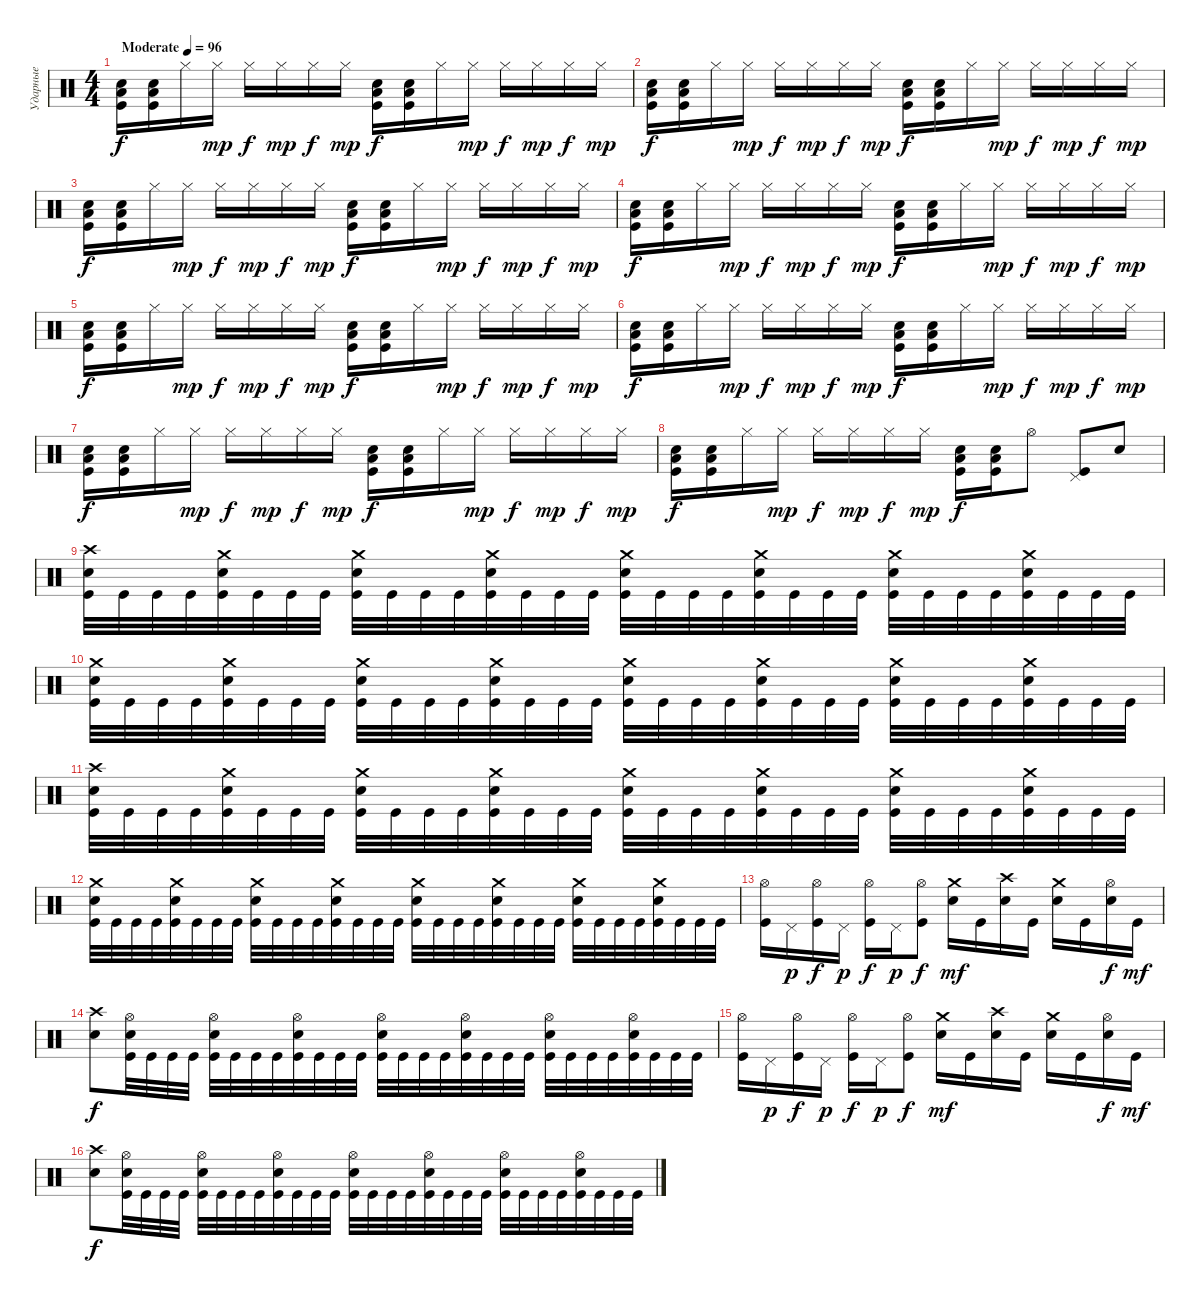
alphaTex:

\track ("Ударные" "Ударные") {instrument percussion}
\staff {score}
\articulation defaults
\ts (4 4)
\tempo (96 "Moderate")
\clef neutral
\ks c
("Snare (hit) 2" "Low Floor Tom (hit)" "Kick (hit)").16{dy f} ("Snare (hit) 2" "Low Floor Tom (hit)" "Kick (hit)").16 "Hi-Hat (closed)".16 "Hi-Hat (closed)".16{dy mp} "Hi-Hat (closed)".16{dy f} "Hi-Hat (closed)".16{dy mp} "Hi-Hat (closed)".16{dy f} "Hi-Hat (closed)".16{dy mp} ("Snare (hit) 2" "Low Floor Tom (hit)" "Kick (hit)").16{dy f} ("Snare (hit) 2" "Low Floor Tom (hit)" "Kick (hit)").16 "Hi-Hat (closed)".16 "Hi-Hat (closed)".16{dy mp} "Hi-Hat (closed)".16{dy f} "Hi-Hat (closed)".16{dy mp} "Hi-Hat (closed)".16{dy f} "Hi-Hat (closed)".16{dy mp} |
("Snare (hit) 2" "Low Floor Tom (hit)" "Kick (hit)").16{dy f} ("Snare (hit) 2" "Low Floor Tom (hit)" "Kick (hit)").16 "Hi-Hat (closed)".16 "Hi-Hat (closed)".16{dy mp} "Hi-Hat (closed)".16{dy f} "Hi-Hat (closed)".16{dy mp} "Hi-Hat (closed)".16{dy f} "Hi-Hat (closed)".16{dy mp} ("Snare (hit) 2" "Low Floor Tom (hit)" "Kick (hit)").16{dy f} ("Snare (hit) 2" "Low Floor Tom (hit)" "Kick (hit)").16 "Hi-Hat (closed)".16 "Hi-Hat (closed)".16{dy mp} "Hi-Hat (closed)".16{dy f} "Hi-Hat (closed)".16{dy mp} "Hi-Hat (closed)".16{dy f} "Hi-Hat (closed)".16{dy mp} |
("Snare (hit) 2" "Low Floor Tom (hit)" "Kick (hit)").16{dy f} ("Snare (hit) 2" "Low Floor Tom (hit)" "Kick (hit)").16 "Hi-Hat (closed)".16 "Hi-Hat (closed)".16{dy mp} "Hi-Hat (closed)".16{dy f} "Hi-Hat (closed)".16{dy mp} "Hi-Hat (closed)".16{dy f} "Hi-Hat (closed)".16{dy mp} ("Snare (hit) 2" "Low Floor Tom (hit)" "Kick (hit)").16{dy f} ("Snare (hit) 2" "Low Floor Tom (hit)" "Kick (hit)").16 "Hi-Hat (closed)".16 "Hi-Hat (closed)".16{dy mp} "Hi-Hat (closed)".16{dy f} "Hi-Hat (closed)".16{dy mp} "Hi-Hat (closed)".16{dy f} "Hi-Hat (closed)".16{dy mp} |
("Snare (hit) 2" "Low Floor Tom (hit)" "Kick (hit)").16{dy f} ("Snare (hit) 2" "Low Floor Tom (hit)" "Kick (hit)").16 "Hi-Hat (closed)".16 "Hi-Hat (closed)".16{dy mp} "Hi-Hat (closed)".16{dy f} "Hi-Hat (closed)".16{dy mp} "Hi-Hat (closed)".16{dy f} "Hi-Hat (closed)".16{dy mp} ("Snare (hit) 2" "Low Floor Tom (hit)" "Kick (hit)").16{dy f} ("Snare (hit) 2" "Low Floor Tom (hit)" "Kick (hit)").16 "Hi-Hat (closed)".16 "Hi-Hat (closed)".16{dy mp} "Hi-Hat (closed)".16{dy f} "Hi-Hat (closed)".16{dy mp} "Hi-Hat (closed)".16{dy f} "Hi-Hat (closed)".16{dy mp} |
("Snare (hit) 2" "Low Floor Tom (hit)" "Kick (hit)").16{dy f} ("Snare (hit) 2" "Low Floor Tom (hit)" "Kick (hit)").16 "Hi-Hat (closed)".16 "Hi-Hat (closed)".16{dy mp} "Hi-Hat (closed)".16{dy f} "Hi-Hat (closed)".16{dy mp} "Hi-Hat (closed)".16{dy f} "Hi-Hat (closed)".16{dy mp} ("Snare (hit) 2" "Low Floor Tom (hit)" "Kick (hit)").16{dy f} ("Snare (hit) 2" "Low Floor Tom (hit)" "Kick (hit)").16 "Hi-Hat (closed)".16 "Hi-Hat (closed)".16{dy mp} "Hi-Hat (closed)".16{dy f} "Hi-Hat (closed)".16{dy mp} "Hi-Hat (closed)".16{dy f} "Hi-Hat (closed)".16{dy mp} |
("Snare (hit) 2" "Low Floor Tom (hit)" "Kick (hit)").16{dy f} ("Snare (hit) 2" "Low Floor Tom (hit)" "Kick (hit)").16 "Hi-Hat (closed)".16 "Hi-Hat (closed)".16{dy mp} "Hi-Hat (closed)".16{dy f} "Hi-Hat (closed)".16{dy mp} "Hi-Hat (closed)".16{dy f} "Hi-Hat (closed)".16{dy mp} ("Snare (hit) 2" "Low Floor Tom (hit)" "Kick (hit)").16{dy f} ("Snare (hit) 2" "Low Floor Tom (hit)" "Kick (hit)").16 "Hi-Hat (closed)".16 "Hi-Hat (closed)".16{dy mp} "Hi-Hat (closed)".16{dy f} "Hi-Hat (closed)".16{dy mp} "Hi-Hat (closed)".16{dy f} "Hi-Hat (closed)".16{dy mp} |
("Snare (hit) 2" "Low Floor Tom (hit)" "Kick (hit)").16{dy f} ("Snare (hit) 2" "Low Floor Tom (hit)" "Kick (hit)").16 "Hi-Hat (closed)".16 "Hi-Hat (closed)".16{dy mp} "Hi-Hat (closed)".16{dy f} "Hi-Hat (closed)".16{dy mp} "Hi-Hat (closed)".16{dy f} "Hi-Hat (closed)".16{dy mp} ("Snare (hit) 2" "Low Floor Tom (hit)" "Kick (hit)").16{dy f} ("Snare (hit) 2" "Low Floor Tom (hit)" "Kick (hit)").16 "Hi-Hat (closed)".16 "Hi-Hat (closed)".16{dy mp} "Hi-Hat (closed)".16{dy f} "Hi-Hat (closed)".16{dy mp} "Hi-Hat (closed)".16{dy f} "Hi-Hat (closed)".16{dy mp} |
("Snare (hit) 2" "Low Floor Tom (hit)" "Kick (hit)").16{dy f} ("Snare (hit) 2" "Low Floor Tom (hit)" "Kick (hit)").16 "Hi-Hat (closed)".16 "Hi-Hat (closed)".16{dy mp} "Hi-Hat (closed)".16{dy f} "Hi-Hat (closed)".16{dy mp} "Hi-Hat (closed)".16{dy f} "Hi-Hat (closed)".16{dy mp} ("Snare (hit) 2" "Low Floor Tom (hit)" "Kick (hit)").16{dy f} ("Snare (hit) 2" "Low Floor Tom (hit)" "Kick (hit)").16 "Hi-Hat (open)".8 ("Pedal Hi-Hat (hit)" "Kick (hit)").8 "Snare (hit) 2".8 |
("Snare (hit) 2" "Kick (hit)" "Crash high (hit)").32 "Kick (hit)".32 "Kick (hit)".32 "Kick (hit)".32 ("Snare (hit) 2" "Kick (hit)" "Crash medium (hit)").32 "Kick (hit)".32 "Kick (hit)".32 "Kick (hit)".32 ("Snare (hit) 2" "Kick (hit)" "Crash medium (hit)").32 "Kick (hit)".32 "Kick (hit)".32 "Kick (hit)".32 ("Snare (hit) 2" "Kick (hit)" "Crash medium (hit)").32 "Kick (hit)".32 "Kick (hit)".32 "Kick (hit)".32 ("Snare (hit) 2" "Kick (hit)" "Crash medium (hit)").32 "Kick (hit)".32 "Kick (hit)".32 "Kick (hit)".32 ("Snare (hit) 2" "Kick (hit)" "Crash medium (hit)").32 "Kick (hit)".32 "Kick (hit)".32 "Kick (hit)".32 ("Snare (hit) 2" "Kick (hit)" "Crash medium (hit)").32 "Kick (hit)".32 "Kick (hit)".32 "Kick (hit)".32 ("Snare (hit) 2" "Kick (hit)" "Crash medium (hit)").32 "Kick (hit)".32 "Kick (hit)".32 "Kick (hit)".32 |
("Snare (hit) 2" "Kick (hit)" "Crash medium (hit)").32 "Kick (hit)".32 "Kick (hit)".32 "Kick (hit)".32 ("Snare (hit) 2" "Kick (hit)" "Crash medium (hit)").32 "Kick (hit)".32 "Kick (hit)".32 "Kick (hit)".32 ("Snare (hit) 2" "Kick (hit)" "Crash medium (hit)").32 "Kick (hit)".32 "Kick (hit)".32 "Kick (hit)".32 ("Snare (hit) 2" "Kick (hit)" "Crash medium (hit)").32 "Kick (hit)".32 "Kick (hit)".32 "Kick (hit)".32 ("Snare (hit) 2" "Kick (hit)" "Crash medium (hit)").32 "Kick (hit)".32 "Kick (hit)".32 "Kick (hit)".32 ("Snare (hit) 2" "Kick (hit)" "Crash medium (hit)").32 "Kick (hit)".32 "Kick (hit)".32 "Kick (hit)".32 ("Snare (hit) 2" "Kick (hit)" "Crash medium (hit)").32 "Kick (hit)".32 "Kick (hit)".32 "Kick (hit)".32 ("Snare (hit) 2" "Kick (hit)" "Crash medium (hit)").32 "Kick (hit)".32 "Kick (hit)".32 "Kick (hit)".32 |
("Snare (hit) 2" "Kick (hit)" "Crash high (hit)").32 "Kick (hit)".32 "Kick (hit)".32 "Kick (hit)".32 ("Snare (hit) 2" "Kick (hit)" "Crash medium (hit)").32 "Kick (hit)".32 "Kick (hit)".32 "Kick (hit)".32 ("Snare (hit) 2" "Kick (hit)" "Crash medium (hit)").32 "Kick (hit)".32 "Kick (hit)".32 "Kick (hit)".32 ("Snare (hit) 2" "Kick (hit)" "Crash medium (hit)").32 "Kick (hit)".32 "Kick (hit)".32 "Kick (hit)".32 ("Snare (hit) 2" "Kick (hit)" "Crash medium (hit)").32 "Kick (hit)".32 "Kick (hit)".32 "Kick (hit)".32 ("Snare (hit) 2" "Kick (hit)" "Crash medium (hit)").32 "Kick (hit)".32 "Kick (hit)".32 "Kick (hit)".32 ("Snare (hit) 2" "Kick (hit)" "Crash medium (hit)").32 "Kick (hit)".32 "Kick (hit)".32 "Kick (hit)".32 ("Snare (hit) 2" "Kick (hit)" "Crash medium (hit)").32 "Kick (hit)".32 "Kick (hit)".32 "Kick (hit)".32 |
("Snare (hit) 2" "Kick (hit)" "Crash medium (hit)").32 "Kick (hit)".32 "Kick (hit)".32 "Kick (hit)".32 ("Snare (hit) 2" "Kick (hit)" "Crash medium (hit)").32 "Kick (hit)".32 "Kick (hit)".32 "Kick (hit)".32 ("Snare (hit) 2" "Kick (hit)" "Crash medium (hit)").32 "Kick (hit)".32 "Kick (hit)".32 "Kick (hit)".32 ("Snare (hit) 2" "Kick (hit)" "Crash medium (hit)").32 "Kick (hit)".32 "Kick (hit)".32 "Kick (hit)".32 ("Snare (hit) 2" "Kick (hit)" "Crash medium (hit)").32 "Kick (hit)".32 "Kick (hit)".32 "Kick (hit)".32 ("Snare (hit) 2" "Kick (hit)" "Crash medium (hit)").32 "Kick (hit)".32 "Kick (hit)".32 "Kick (hit)".32 ("Snare (hit) 2" "Kick (hit)" "Crash medium (hit)").32 "Kick (hit)".32 "Kick (hit)".32 "Kick (hit)".32 ("Snare (hit) 2" "Kick (hit)" "Crash medium (hit)").32 "Kick (hit)".32 "Kick (hit)".32 "Kick (hit)".32 |
("Hi-Hat (open)" "Kick (hit)").16 "Pedal Hi-Hat (hit)".16{dy p} ("Hi-Hat (open)" "Kick (hit)").16{dy f} "Pedal Hi-Hat (hit)".16{dy p} ("Hi-Hat (open)" "Kick (hit)").16{dy f} "Pedal Hi-Hat (hit)".16{dy p} ("Hi-Hat (open)" "Kick (hit)").8{dy f} ("Crash medium (hit)" "Snare (hit) 2").16{dy mf} "Kick (hit)".16 ("Crash high (hit)" "Snare (hit) 2").16 "Kick (hit)".16 ("Crash medium (hit)" "Snare (hit) 2").16 "Kick (hit)".16 ("Hi-Hat (open)" "Snare (hit) 2").16{dy f} "Kick (hit)".16{dy mf} |
("Snare (hit) 2" "Crash high (hit)").8{dy f} ("Snare (hit) 2" "Kick (hit)" "Hi-Hat (open)").32 "Kick (hit)".32 "Kick (hit)".32 "Kick (hit)".32 ("Snare (hit) 2" "Kick (hit)" "Hi-Hat (open)").32 "Kick (hit)".32 "Kick (hit)".32 "Kick (hit)".32 ("Snare (hit) 2" "Kick (hit)" "Hi-Hat (open)").32 "Kick (hit)".32 "Kick (hit)".32 "Kick (hit)".32 ("Snare (hit) 2" "Kick (hit)" "Hi-Hat (open)").32 "Kick (hit)".32 "Kick (hit)".32 "Kick (hit)".32 ("Snare (hit) 2" "Kick (hit)" "Hi-Hat (open)").32 "Kick (hit)".32 "Kick (hit)".32 "Kick (hit)".32 ("Snare (hit) 2" "Kick (hit)" "Hi-Hat (open)").32 "Kick (hit)".32 "Kick (hit)".32 "Kick (hit)".32 ("Snare (hit) 2" "Kick (hit)" "Hi-Hat (open)").32 "Kick (hit)".32 "Kick (hit)".32 "Kick (hit)".32 |
("Hi-Hat (open)" "Kick (hit)").16 "Pedal Hi-Hat (hit)".16{dy p} ("Hi-Hat (open)" "Kick (hit)").16{dy f} "Pedal Hi-Hat (hit)".16{dy p} ("Hi-Hat (open)" "Kick (hit)").16{dy f} "Pedal Hi-Hat (hit)".16{dy p} ("Hi-Hat (open)" "Kick (hit)").8{dy f} ("Crash medium (hit)" "Snare (hit) 2").16{dy mf} "Kick (hit)".16 ("Crash high (hit)" "Snare (hit) 2").16 "Kick (hit)".16 ("Crash medium (hit)" "Snare (hit) 2").16 "Kick (hit)".16 ("Hi-Hat (open)" "Snare (hit) 2").16{dy f} "Kick (hit)".16{dy mf} |
("Snare (hit) 2" "Crash high (hit)").8{dy f} ("Snare (hit) 2" "Kick (hit)" "Hi-Hat (open)").32 "Kick (hit)".32 "Kick (hit)".32 "Kick (hit)".32 ("Snare (hit) 2" "Kick (hit)" "Hi-Hat (open)").32 "Kick (hit)".32 "Kick (hit)".32 "Kick (hit)".32 ("Snare (hit) 2" "Kick (hit)" "Hi-Hat (open)").32 "Kick (hit)".32 "Kick (hit)".32 "Kick (hit)".32 ("Snare (hit) 2" "Kick (hit)" "Hi-Hat (open)").32 "Kick (hit)".32 "Kick (hit)".32 "Kick (hit)".32 ("Snare (hit) 2" "Kick (hit)" "Hi-Hat (open)").32 "Kick (hit)".32 "Kick (hit)".32 "Kick (hit)".32 ("Snare (hit) 2" "Kick (hit)" "Hi-Hat (open)").32 "Kick (hit)".32 "Kick (hit)".32 "Kick (hit)".32 ("Snare (hit) 2" "Kick (hit)" "Hi-Hat (open)").32 "Kick (hit)".32 "Kick (hit)".32 "Kick (hit)".32
